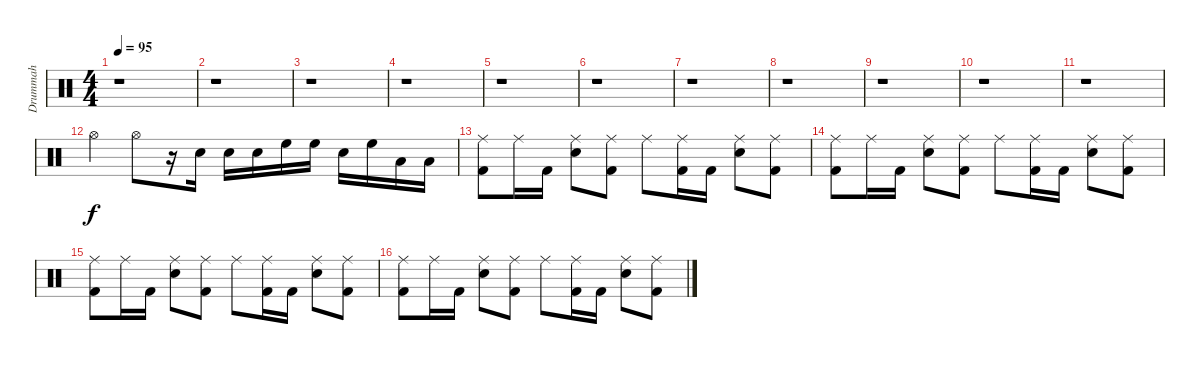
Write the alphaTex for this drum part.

\track ("Drummah" "Drummah") {instrument percussion}
\staff {score}
\articulation defaults
\ts (4 4)
\tempo 95
\clef neutral
\ks c
r.1{dy f} |
r.1 |
r.1 |
r.1 |
r.1 |
r.1 |
r.1 |
r.1 |
r.1 |
r.1 |
r.1 |
"Hi-Hat (open)".4 "Hi-Hat (open)".8 r.16 "Snare (hit) 2".16 "Snare (hit) 2".16 "Snare (hit) 2".16 "High Floor Tom (hit)".16 "High Floor Tom (hit)".16 "Snare (hit) 2".16 "High Floor Tom (hit)".16 "Low Tom (hit)".16 "Low Tom (hit)".16 |
("Ride (middle)" "Kick (hit) 2").8 "Ride (middle)".16 "Kick (hit) 2".16 ("Ride (middle)" "Snare (hit) 2").8 ("Ride (middle)" "Kick (hit) 2").8 "Ride (middle)".8 ("Ride (middle)" "Kick (hit) 2").16 "Kick (hit) 2".16 ("Ride (middle)" "Snare (hit) 2").8 ("Ride (middle)" "Kick (hit) 2").8 |
("Ride (middle)" "Kick (hit) 2").8 "Ride (middle)".16 "Kick (hit) 2".16 ("Ride (middle)" "Snare (hit) 2").8 ("Ride (middle)" "Kick (hit) 2").8 "Ride (middle)".8 ("Ride (middle)" "Kick (hit) 2").16 "Kick (hit) 2".16 ("Ride (middle)" "Snare (hit) 2").8 ("Ride (middle)" "Kick (hit) 2").8 |
("Ride (middle)" "Kick (hit) 2").8 "Ride (middle)".16 "Kick (hit) 2".16 ("Ride (middle)" "Snare (hit) 2").8 ("Ride (middle)" "Kick (hit) 2").8 "Ride (middle)".8 ("Ride (middle)" "Kick (hit) 2").16 "Kick (hit) 2".16 ("Ride (middle)" "Snare (hit) 2").8 ("Ride (middle)" "Kick (hit) 2").8 |
("Ride (middle)" "Kick (hit) 2").8 "Ride (middle)".16 "Kick (hit) 2".16 ("Ride (middle)" "Snare (hit) 2").8 ("Ride (middle)" "Kick (hit) 2").8 "Ride (middle)".8 ("Ride (middle)" "Kick (hit) 2").16 "Kick (hit) 2".16 ("Ride (middle)" "Snare (hit) 2").8 ("Ride (middle)" "Kick (hit) 2").8
